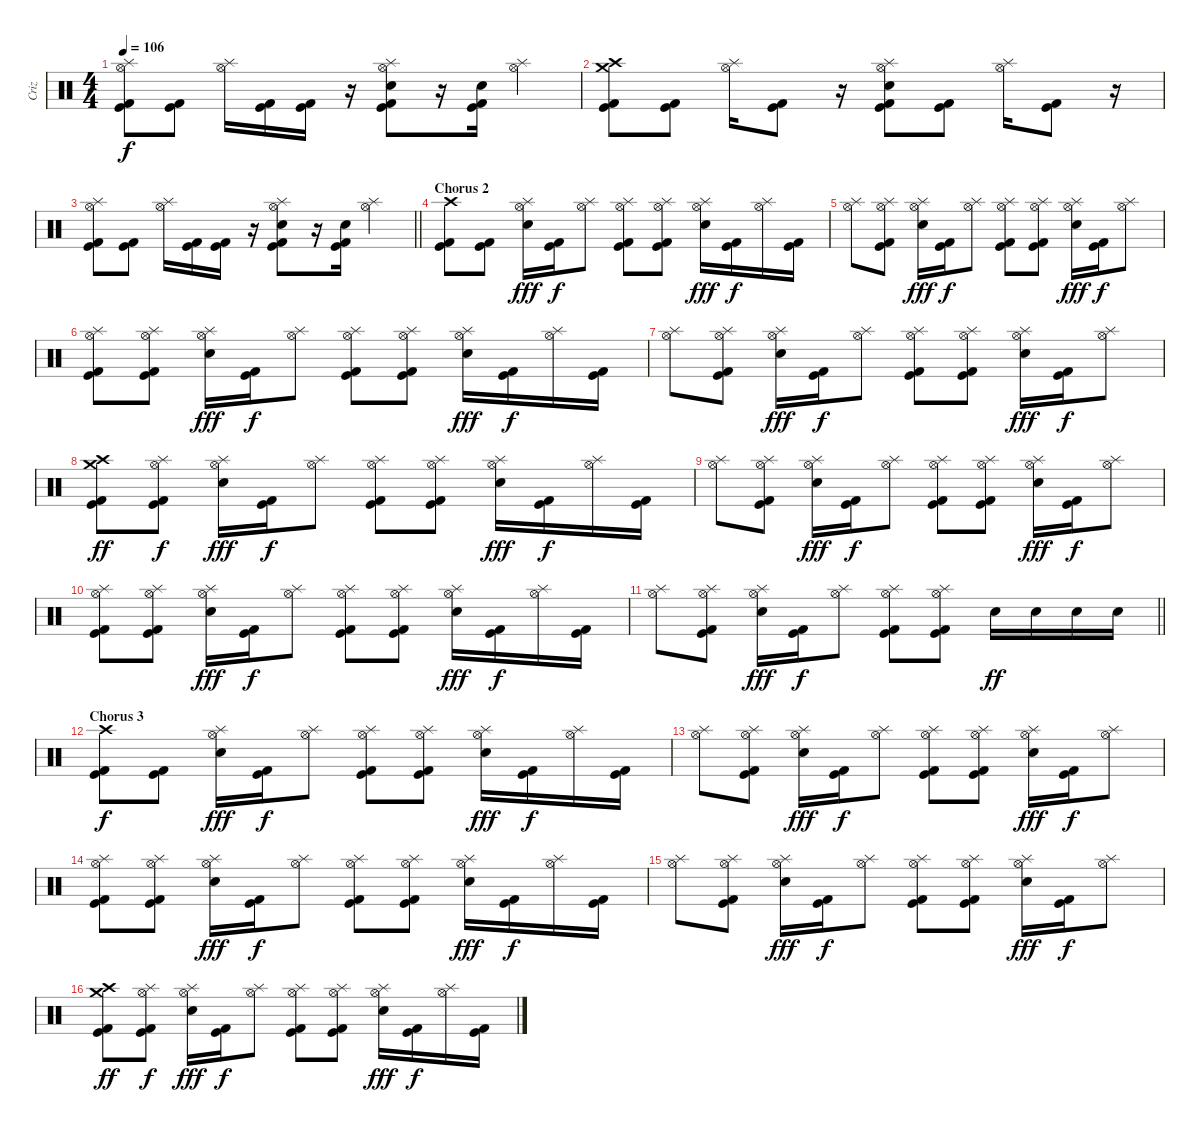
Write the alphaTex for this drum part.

\track ("Criz" "Criz") {instrument percussion}
\staff {score}
\articulation defaults
\ts (4 4)
\tempo 106
\clef neutral
\ks c
("Splash (hit)" "Hi-Hat (open)" "Kick (hit)" "Kick (hit) 2").8{dy f} ("Kick (hit)" "Kick (hit) 2").8 ("Splash (hit)" "Hi-Hat (open)").16 ("Kick (hit)" "Kick (hit) 2").16 ("Kick (hit)" "Kick (hit) 2").16 r.16 ("Splash (hit)" "Hi-Hat (open)" "Snare (hit) 2" "Kick (hit)" "Kick (hit) 2").8 r.16 ("Snare (hit) 2" "Kick (hit)" "Kick (hit) 2").16 ("Splash (hit)" "Hi-Hat (open)").4 |
("Crash high (hit)" "Crash medium (hit)" "Kick (hit)" "Kick (hit) 2").8 ("Kick (hit)" "Kick (hit) 2").8 ("Splash (hit)" "Hi-Hat (open)").16 ("Kick (hit)" "Kick (hit) 2").8 r.16 ("Splash (hit)" "Hi-Hat (open)" "Snare (hit) 2" "Kick (hit)" "Kick (hit) 2").8 ("Kick (hit)" "Kick (hit) 2").8 ("Splash (hit)" "Hi-Hat (open)").16 ("Kick (hit)" "Kick (hit) 2").8 r.16 |
\barLineRight lightlight
("Splash (hit)" "Hi-Hat (open)" "Kick (hit)" "Kick (hit) 2").8 ("Kick (hit)" "Kick (hit) 2").8 ("Splash (hit)" "Hi-Hat (open)").16 ("Kick (hit)" "Kick (hit) 2").16 ("Kick (hit)" "Kick (hit) 2").16 r.16 ("Splash (hit)" "Hi-Hat (open)" "Snare (hit) 2" "Kick (hit)" "Kick (hit) 2").8 r.16 ("Snare (hit) 2" "Kick (hit)" "Kick (hit) 2").16 ("Splash (hit)" "Hi-Hat (open)").4 |
\section ("" "Chorus 2")
("Crash high (hit)" "Kick (hit)" "Kick (hit) 2").8 ("Kick (hit)" "Kick (hit) 2").8 ("Splash (hit)" "Hi-Hat (open)" "Snare (hit) 2").16{dy fff} ("Kick (hit)" "Kick (hit) 2").16{dy f} ("Splash (hit)" "Hi-Hat (open)").8 ("Splash (hit)" "Hi-Hat (open)" "Kick (hit)" "Kick (hit) 2").8 ("Splash (hit)" "Hi-Hat (open)" "Kick (hit)" "Kick (hit) 2").8 ("Splash (hit)" "Hi-Hat (open)" "Snare (hit) 2").16{dy fff} ("Kick (hit)" "Kick (hit) 2").16{dy f} ("Splash (hit)" "Hi-Hat (open)").16 ("Kick (hit)" "Kick (hit) 2").16 |
("Splash (hit)" "Hi-Hat (open)").8 ("Splash (hit)" "Hi-Hat (open)" "Kick (hit)" "Kick (hit) 2").8 ("Splash (hit)" "Hi-Hat (open)" "Snare (hit) 2").16{dy fff} ("Kick (hit)" "Kick (hit) 2").16{dy f} ("Splash (hit)" "Hi-Hat (open)").8 ("Splash (hit)" "Hi-Hat (open)" "Kick (hit)" "Kick (hit) 2").8 ("Splash (hit)" "Hi-Hat (open)" "Kick (hit)" "Kick (hit) 2").8 ("Splash (hit)" "Hi-Hat (open)" "Snare (hit) 2").16{dy fff} ("Kick (hit)" "Kick (hit) 2").16{dy f} ("Splash (hit)" "Hi-Hat (open)").8 |
("Splash (hit)" "Hi-Hat (open)" "Kick (hit)" "Kick (hit) 2").8 ("Splash (hit)" "Hi-Hat (open)" "Kick (hit)" "Kick (hit) 2").8 ("Splash (hit)" "Hi-Hat (open)" "Snare (hit) 2").16{dy fff} ("Kick (hit)" "Kick (hit) 2").16{dy f} ("Splash (hit)" "Hi-Hat (open)").8 ("Splash (hit)" "Hi-Hat (open)" "Kick (hit)" "Kick (hit) 2").8 ("Splash (hit)" "Hi-Hat (open)" "Kick (hit)" "Kick (hit) 2").8 ("Splash (hit)" "Hi-Hat (open)" "Snare (hit) 2").16{dy fff} ("Kick (hit)" "Kick (hit) 2").16{dy f} ("Splash (hit)" "Hi-Hat (open)").16 ("Kick (hit)" "Kick (hit) 2").16 |
("Splash (hit)" "Hi-Hat (open)").8 ("Splash (hit)" "Hi-Hat (open)" "Kick (hit)" "Kick (hit) 2").8 ("Splash (hit)" "Hi-Hat (open)" "Snare (hit) 2").16{dy fff} ("Kick (hit)" "Kick (hit) 2").16{dy f} ("Splash (hit)" "Hi-Hat (open)").8 ("Splash (hit)" "Hi-Hat (open)" "Kick (hit)" "Kick (hit) 2").8 ("Splash (hit)" "Hi-Hat (open)" "Kick (hit)" "Kick (hit) 2").8 ("Splash (hit)" "Hi-Hat (open)" "Snare (hit) 2").16{dy fff} ("Kick (hit)" "Kick (hit) 2").16{dy f} ("Splash (hit)" "Hi-Hat (open)").8 |
("Crash high (hit)" "Crash medium (hit)" "Kick (hit)" "Kick (hit) 2").8{dy ff} ("Splash (hit)" "Hi-Hat (open)" "Kick (hit)" "Kick (hit) 2").8{dy f} ("Splash (hit)" "Hi-Hat (open)" "Snare (hit) 2").16{dy fff} ("Kick (hit)" "Kick (hit) 2").16{dy f} ("Splash (hit)" "Hi-Hat (open)").8 ("Splash (hit)" "Hi-Hat (open)" "Kick (hit)" "Kick (hit) 2").8 ("Splash (hit)" "Hi-Hat (open)" "Kick (hit)" "Kick (hit) 2").8 ("Splash (hit)" "Hi-Hat (open)" "Snare (hit) 2").16{dy fff} ("Kick (hit)" "Kick (hit) 2").16{dy f} ("Splash (hit)" "Hi-Hat (open)").16 ("Kick (hit)" "Kick (hit) 2").16 |
("Splash (hit)" "Hi-Hat (open)").8 ("Splash (hit)" "Hi-Hat (open)" "Kick (hit)" "Kick (hit) 2").8 ("Splash (hit)" "Hi-Hat (open)" "Snare (hit) 2").16{dy fff} ("Kick (hit)" "Kick (hit) 2").16{dy f} ("Splash (hit)" "Hi-Hat (open)").8 ("Splash (hit)" "Hi-Hat (open)" "Kick (hit)" "Kick (hit) 2").8 ("Splash (hit)" "Hi-Hat (open)" "Kick (hit)" "Kick (hit) 2").8 ("Splash (hit)" "Hi-Hat (open)" "Snare (hit) 2").16{dy fff} ("Kick (hit)" "Kick (hit) 2").16{dy f} ("Splash (hit)" "Hi-Hat (open)").8 |
("Splash (hit)" "Hi-Hat (open)" "Kick (hit)" "Kick (hit) 2").8 ("Splash (hit)" "Hi-Hat (open)" "Kick (hit)" "Kick (hit) 2").8 ("Splash (hit)" "Hi-Hat (open)" "Snare (hit) 2").16{dy fff} ("Kick (hit)" "Kick (hit) 2").16{dy f} ("Splash (hit)" "Hi-Hat (open)").8 ("Splash (hit)" "Hi-Hat (open)" "Kick (hit)" "Kick (hit) 2").8 ("Splash (hit)" "Hi-Hat (open)" "Kick (hit)" "Kick (hit) 2").8 ("Splash (hit)" "Hi-Hat (open)" "Snare (hit) 2").16{dy fff} ("Kick (hit)" "Kick (hit) 2").16{dy f} ("Splash (hit)" "Hi-Hat (open)").16 ("Kick (hit)" "Kick (hit) 2").16 |
\barLineRight lightlight
("Splash (hit)" "Hi-Hat (open)").8 ("Splash (hit)" "Hi-Hat (open)" "Kick (hit)" "Kick (hit) 2").8 ("Splash (hit)" "Hi-Hat (open)" "Snare (hit) 2").16{dy fff} ("Kick (hit)" "Kick (hit) 2").16{dy f} ("Splash (hit)" "Hi-Hat (open)").8 ("Splash (hit)" "Hi-Hat (open)" "Kick (hit)" "Kick (hit) 2").8 ("Splash (hit)" "Hi-Hat (open)" "Kick (hit)" "Kick (hit) 2").8 "Snare (hit) 2".16{dy ff} "Snare (hit) 2".16 "Snare (hit) 2".16 "Snare (hit) 2".16 |
\section ("" "Chorus 3")
("Crash high (hit)" "Kick (hit)" "Kick (hit) 2").8{dy f} ("Kick (hit)" "Kick (hit) 2").8 ("Splash (hit)" "Hi-Hat (open)" "Snare (hit) 2").16{dy fff} ("Kick (hit)" "Kick (hit) 2").16{dy f} ("Splash (hit)" "Hi-Hat (open)").8 ("Splash (hit)" "Hi-Hat (open)" "Kick (hit)" "Kick (hit) 2").8 ("Splash (hit)" "Hi-Hat (open)" "Kick (hit)" "Kick (hit) 2").8 ("Splash (hit)" "Hi-Hat (open)" "Snare (hit) 2").16{dy fff} ("Kick (hit)" "Kick (hit) 2").16{dy f} ("Splash (hit)" "Hi-Hat (open)").16 ("Kick (hit)" "Kick (hit) 2").16 |
("Splash (hit)" "Hi-Hat (open)").8 ("Splash (hit)" "Hi-Hat (open)" "Kick (hit)" "Kick (hit) 2").8 ("Splash (hit)" "Hi-Hat (open)" "Snare (hit) 2").16{dy fff} ("Kick (hit)" "Kick (hit) 2").16{dy f} ("Splash (hit)" "Hi-Hat (open)").8 ("Splash (hit)" "Hi-Hat (open)" "Kick (hit)" "Kick (hit) 2").8 ("Splash (hit)" "Hi-Hat (open)" "Kick (hit)" "Kick (hit) 2").8 ("Splash (hit)" "Hi-Hat (open)" "Snare (hit) 2").16{dy fff} ("Kick (hit)" "Kick (hit) 2").16{dy f} ("Splash (hit)" "Hi-Hat (open)").8 |
("Splash (hit)" "Hi-Hat (open)" "Kick (hit)" "Kick (hit) 2").8 ("Splash (hit)" "Hi-Hat (open)" "Kick (hit)" "Kick (hit) 2").8 ("Splash (hit)" "Hi-Hat (open)" "Snare (hit) 2").16{dy fff} ("Kick (hit)" "Kick (hit) 2").16{dy f} ("Splash (hit)" "Hi-Hat (open)").8 ("Splash (hit)" "Hi-Hat (open)" "Kick (hit)" "Kick (hit) 2").8 ("Splash (hit)" "Hi-Hat (open)" "Kick (hit)" "Kick (hit) 2").8 ("Splash (hit)" "Hi-Hat (open)" "Snare (hit) 2").16{dy fff} ("Kick (hit)" "Kick (hit) 2").16{dy f} ("Splash (hit)" "Hi-Hat (open)").16 ("Kick (hit)" "Kick (hit) 2").16 |
("Splash (hit)" "Hi-Hat (open)").8 ("Splash (hit)" "Hi-Hat (open)" "Kick (hit)" "Kick (hit) 2").8 ("Splash (hit)" "Hi-Hat (open)" "Snare (hit) 2").16{dy fff} ("Kick (hit)" "Kick (hit) 2").16{dy f} ("Splash (hit)" "Hi-Hat (open)").8 ("Splash (hit)" "Hi-Hat (open)" "Kick (hit)" "Kick (hit) 2").8 ("Splash (hit)" "Hi-Hat (open)" "Kick (hit)" "Kick (hit) 2").8 ("Splash (hit)" "Hi-Hat (open)" "Snare (hit) 2").16{dy fff} ("Kick (hit)" "Kick (hit) 2").16{dy f} ("Splash (hit)" "Hi-Hat (open)").8 |
("Crash high (hit)" "Crash medium (hit)" "Kick (hit)" "Kick (hit) 2").8{dy ff} ("Splash (hit)" "Hi-Hat (open)" "Kick (hit)" "Kick (hit) 2").8{dy f} ("Splash (hit)" "Hi-Hat (open)" "Snare (hit) 2").16{dy fff} ("Kick (hit)" "Kick (hit) 2").16{dy f} ("Splash (hit)" "Hi-Hat (open)").8 ("Splash (hit)" "Hi-Hat (open)" "Kick (hit)" "Kick (hit) 2").8 ("Splash (hit)" "Hi-Hat (open)" "Kick (hit)" "Kick (hit) 2").8 ("Splash (hit)" "Hi-Hat (open)" "Snare (hit) 2").16{dy fff} ("Kick (hit)" "Kick (hit) 2").16{dy f} ("Splash (hit)" "Hi-Hat (open)").16 ("Kick (hit)" "Kick (hit) 2").16
